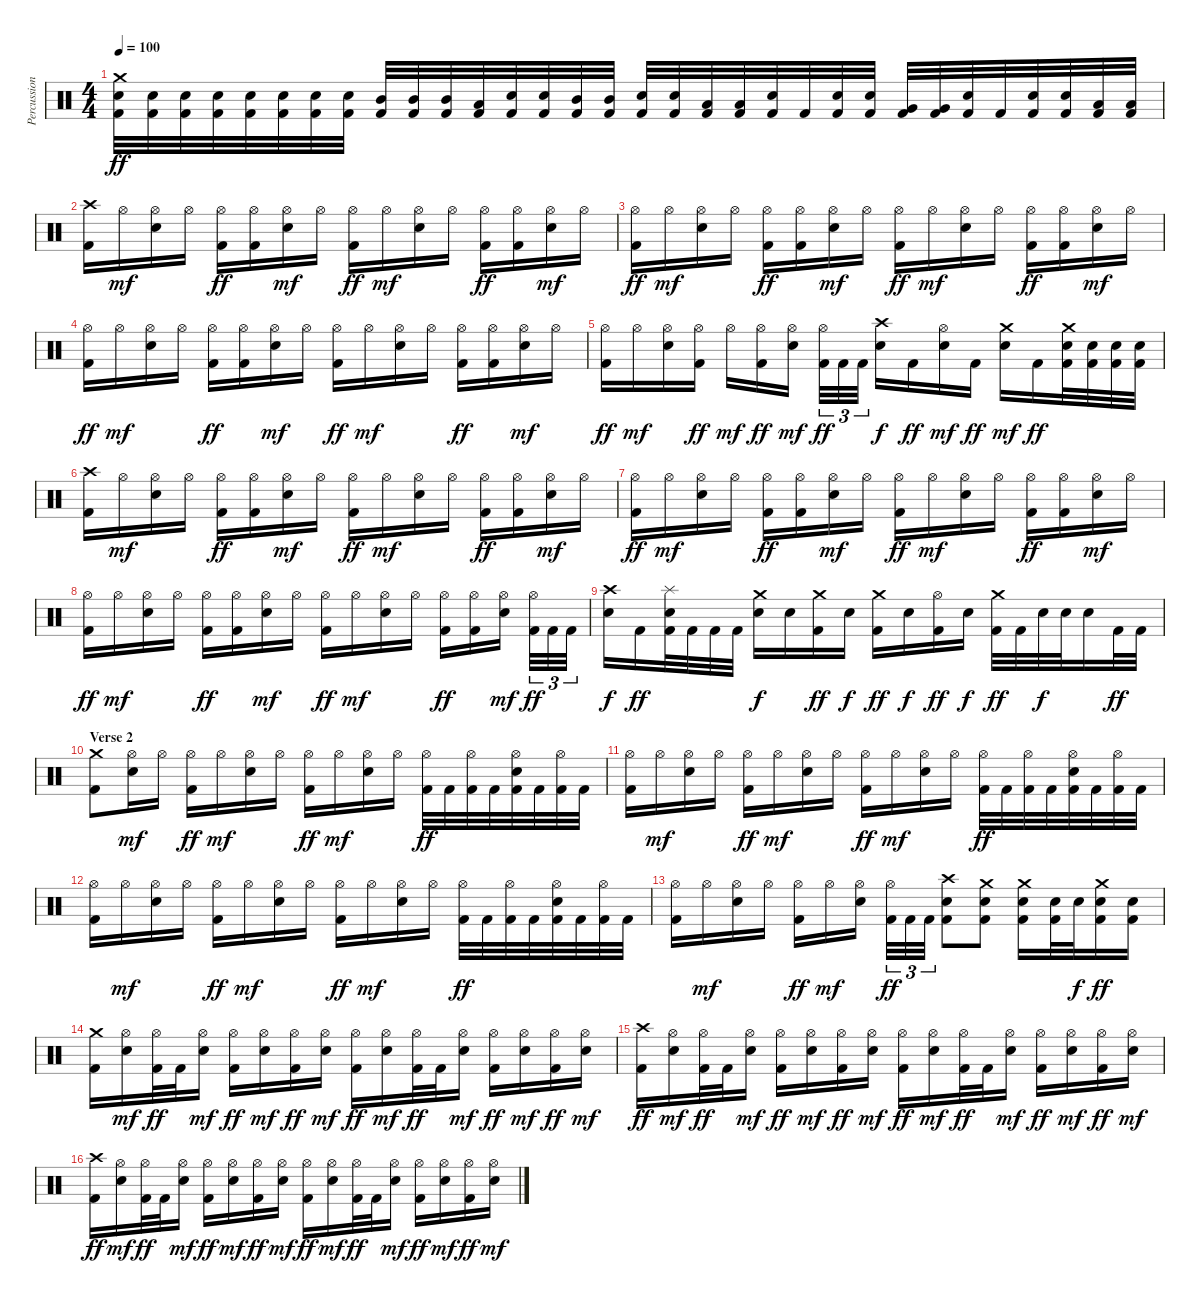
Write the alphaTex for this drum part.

\track ("Percussion" "Percussion") {instrument percussion}
\staff {score}
\articulation defaults
\ts (4 4)
\tempo 100
\clef neutral
\ks c
("Crash medium (hit)" "Snare (hit) 2" "Kick (hit) 2").32{dy ff} ("Snare (hit) 2" "Kick (hit) 2").32 ("Snare (hit) 2" "Kick (hit) 2").32 ("Snare (hit) 2" "Kick (hit) 2").32 ("Snare (hit) 2" "Kick (hit) 2").32 ("Snare (hit) 2" "Kick (hit) 2").32 ("Snare (hit) 2" "Kick (hit) 2").32 ("Snare (hit) 2" "Kick (hit) 2").32 ("Mid Tom (hit)" "Kick (hit) 2").32 ("Mid Tom (hit)" "Kick (hit) 2").32 ("Mid Tom (hit)" "Kick (hit) 2").32 ("Low Tom (hit)" "Kick (hit) 2").32 ("Snare (hit) 2" "Kick (hit) 2").32 ("Snare (hit) 2" "Kick (hit) 2").32 ("Mid Tom (hit)" "Kick (hit) 2").32 ("Mid Tom (hit)" "Kick (hit) 2").32 ("Snare (hit) 2" "Kick (hit) 2").32 ("Snare (hit) 2" "Kick (hit) 2").32 ("Low Tom (hit)" "Kick (hit) 2").32 ("Low Tom (hit)" "Kick (hit) 2").32 ("Snare (hit) 2" "Kick (hit) 2").32 "Kick (hit) 2".32 ("Snare (hit) 2" "Kick (hit) 2").32 ("Snare (hit) 2" "Kick (hit) 2").32 ("Very Low Tom (hit)" "Kick (hit) 2").32 ("Very Low Tom (hit)" "Kick (hit) 2").32 ("Snare (hit) 2" "Kick (hit) 2").32 "Kick (hit) 2".32 ("Snare (hit) 2" "Kick (hit) 2").32 ("Snare (hit) 2" "Kick (hit) 2").32 ("Low Floor Tom (hit)" "Kick (hit) 2").32 ("Low Floor Tom (hit)" "Kick (hit) 2").32 |
\section ("" "")
("Crash high (hit)" "Kick (hit) 2").16 "Hi-Hat (open)".16{dy mf} ("Hi-Hat (open)" "Snare (hit) 2").16 "Hi-Hat (open)".16 ("Hi-Hat (open)" "Kick (hit) 2").16{dy ff} ("Hi-Hat (open)" "Kick (hit) 2").16 ("Hi-Hat (open)" "Snare (hit) 2").16{dy mf} "Hi-Hat (open)".16 ("Hi-Hat (open)" "Kick (hit) 2").16{dy ff} "Hi-Hat (open)".16{dy mf} ("Hi-Hat (open)" "Snare (hit) 2").16 "Hi-Hat (open)".16 ("Hi-Hat (open)" "Kick (hit) 2").16{dy ff} ("Hi-Hat (open)" "Kick (hit) 2").16 ("Hi-Hat (open)" "Snare (hit) 2").16{dy mf} "Hi-Hat (open)".16 |
("Hi-Hat (open)" "Kick (hit) 2").16{dy ff} "Hi-Hat (open)".16{dy mf} ("Hi-Hat (open)" "Snare (hit) 2").16 "Hi-Hat (open)".16 ("Hi-Hat (open)" "Kick (hit) 2").16{dy ff} ("Hi-Hat (open)" "Kick (hit) 2").16 ("Hi-Hat (open)" "Snare (hit) 2").16{dy mf} "Hi-Hat (open)".16 ("Hi-Hat (open)" "Kick (hit) 2").16{dy ff} "Hi-Hat (open)".16{dy mf} ("Hi-Hat (open)" "Snare (hit) 2").16 "Hi-Hat (open)".16 ("Hi-Hat (open)" "Kick (hit) 2").16{dy ff} ("Hi-Hat (open)" "Kick (hit) 2").16 ("Hi-Hat (open)" "Snare (hit) 2").16{dy mf} "Hi-Hat (open)".16 |
("Hi-Hat (open)" "Kick (hit) 2").16{dy ff} "Hi-Hat (open)".16{dy mf} ("Hi-Hat (open)" "Snare (hit) 2").16 "Hi-Hat (open)".16 ("Hi-Hat (open)" "Kick (hit) 2").16{dy ff} ("Hi-Hat (open)" "Kick (hit) 2").16 ("Hi-Hat (open)" "Snare (hit) 2").16{dy mf} "Hi-Hat (open)".16 ("Hi-Hat (open)" "Kick (hit) 2").16{dy ff} "Hi-Hat (open)".16{dy mf} ("Hi-Hat (open)" "Snare (hit) 2").16 "Hi-Hat (open)".16 ("Hi-Hat (open)" "Kick (hit) 2").16{dy ff} ("Hi-Hat (open)" "Kick (hit) 2").16 ("Hi-Hat (open)" "Snare (hit) 2").16{dy mf} "Hi-Hat (open)".16 |
("Hi-Hat (open)" "Kick (hit) 2").16{dy ff} "Hi-Hat (open)".16{dy mf} ("Hi-Hat (open)" "Snare (hit) 2").16 ("Hi-Hat (open)" "Kick (hit) 2").16{dy ff} "Hi-Hat (open)".16{dy mf} ("Hi-Hat (open)" "Kick (hit) 2").16{dy ff} ("Hi-Hat (open)" "Snare (hit) 2").16{dy mf} ("Hi-Hat (open)" "Kick (hit) 2").32{tu (3 2) dy ff} "Kick (hit) 2".32{tu (3 2)} "Kick (hit) 2".32{tu (3 2)} ("Crash high (hit)" "Snare (hit) 2").16{dy f} "Kick (hit) 2".16{dy ff} ("Hi-Hat (open)" "Snare (hit) 2").16{dy mf} "Kick (hit) 2".16{dy ff} ("Crash medium (hit)" "Snare (hit) 2").16{dy mf} "Kick (hit) 2".16{dy ff} ("Crash medium (hit)" "Snare (hit) 2" "Kick (hit) 2").32 ("Snare (hit) 2" "Kick (hit) 2").32 ("Snare (hit) 2" "Kick (hit) 2").32 ("Snare (hit) 2" "Kick (hit) 2").32 |
("Crash high (hit)" "Kick (hit) 2").16 "Hi-Hat (open)".16{dy mf} ("Hi-Hat (open)" "Snare (hit) 2").16 "Hi-Hat (open)".16 ("Hi-Hat (open)" "Kick (hit) 2").16{dy ff} ("Hi-Hat (open)" "Kick (hit) 2").16 ("Hi-Hat (open)" "Snare (hit) 2").16{dy mf} "Hi-Hat (open)".16 ("Hi-Hat (open)" "Kick (hit) 2").16{dy ff} "Hi-Hat (open)".16{dy mf} ("Hi-Hat (open)" "Snare (hit) 2").16 "Hi-Hat (open)".16 ("Hi-Hat (open)" "Kick (hit) 2").16{dy ff} ("Hi-Hat (open)" "Kick (hit) 2").16 ("Hi-Hat (open)" "Snare (hit) 2").16{dy mf} "Hi-Hat (open)".16 |
("Hi-Hat (open)" "Kick (hit) 2").16{dy ff} "Hi-Hat (open)".16{dy mf} ("Hi-Hat (open)" "Snare (hit) 2").16 "Hi-Hat (open)".16 ("Hi-Hat (open)" "Kick (hit) 2").16{dy ff} ("Hi-Hat (open)" "Kick (hit) 2").16 ("Hi-Hat (open)" "Snare (hit) 2").16{dy mf} "Hi-Hat (open)".16 ("Hi-Hat (open)" "Kick (hit) 2").16{dy ff} "Hi-Hat (open)".16{dy mf} ("Hi-Hat (open)" "Snare (hit) 2").16 "Hi-Hat (open)".16 ("Hi-Hat (open)" "Kick (hit) 2").16{dy ff} ("Hi-Hat (open)" "Kick (hit) 2").16 ("Hi-Hat (open)" "Snare (hit) 2").16{dy mf} "Hi-Hat (open)".16 |
("Hi-Hat (open)" "Kick (hit) 2").16{dy ff} "Hi-Hat (open)".16{dy mf} ("Hi-Hat (open)" "Snare (hit) 2").16 "Hi-Hat (open)".16 ("Hi-Hat (open)" "Kick (hit) 2").16{dy ff} ("Hi-Hat (open)" "Kick (hit) 2").16 ("Hi-Hat (open)" "Snare (hit) 2").16{dy mf} "Hi-Hat (open)".16 ("Hi-Hat (open)" "Kick (hit) 2").16{dy ff} "Hi-Hat (open)".16{dy mf} ("Hi-Hat (open)" "Snare (hit) 2").16 "Hi-Hat (open)".16 ("Hi-Hat (open)" "Kick (hit) 2").16{dy ff} ("Hi-Hat (open)" "Kick (hit) 2").16 ("Hi-Hat (open)" "Snare (hit) 2").16{dy mf} ("Hi-Hat (open)" "Kick (hit) 2").32{tu (3 2) dy ff} "Kick (hit) 2".32{tu (3 2)} "Kick (hit) 2".32{tu (3 2)} |
("Crash high (hit)" "Snare (hit) 2").16{dy f} "Kick (hit) 2".16{dy ff} ("Splash (hit)" "Snare (hit) 2" "Kick (hit) 2").32 "Kick (hit) 2".32 "Kick (hit) 2".32 "Kick (hit) 2".32 ("Crash medium (hit)" "Snare (hit) 2").16{dy f} "Snare (hit) 2".16 ("Crash medium (hit)" "Kick (hit) 2").16{dy ff} "Snare (hit) 2".16{dy f} ("Crash medium (hit)" "Kick (hit) 2").16{dy ff} "Snare (hit) 2".16{dy f} ("Hi-Hat (open)" "Kick (hit) 2").16{dy ff} "Snare (hit) 2".16{dy f} ("Crash medium (hit)" "Kick (hit) 2").32{dy ff} "Kick (hit) 2".32 "Snare (hit) 2".32{dy f} "Snare (hit) 2".32 "Snare (hit) 2".16 "Kick (hit) 2".32{dy ff} "Kick (hit) 2".32 |
\section ("" "Verse 2")
("Crash medium (hit)" "Kick (hit) 2").8 ("Hi-Hat (open)" "Snare (hit) 2").16{dy mf} "Hi-Hat (open)".16 ("Hi-Hat (open)" "Kick (hit) 2").16{dy ff} "Hi-Hat (open)".16{dy mf} ("Hi-Hat (open)" "Snare (hit) 2").16 "Hi-Hat (open)".16 ("Hi-Hat (open)" "Kick (hit) 2").16{dy ff} "Hi-Hat (open)".16{dy mf} ("Hi-Hat (open)" "Snare (hit) 2").16 "Hi-Hat (open)".16 ("Hi-Hat (open)" "Kick (hit) 2").32{dy ff} "Kick (hit) 2".32 ("Hi-Hat (open)" "Kick (hit) 2").32 "Kick (hit) 2".32 ("Hi-Hat (open)" "Snare (hit) 2" "Kick (hit) 2").32 "Kick (hit) 2".32 ("Hi-Hat (open)" "Kick (hit) 2").32 "Kick (hit) 2".32 |
("Hi-Hat (open)" "Kick (hit) 2").16 "Hi-Hat (open)".16{dy mf} ("Hi-Hat (open)" "Snare (hit) 2").16 "Hi-Hat (open)".16 ("Hi-Hat (open)" "Kick (hit) 2").16{dy ff} "Hi-Hat (open)".16{dy mf} ("Hi-Hat (open)" "Snare (hit) 2").16 "Hi-Hat (open)".16 ("Hi-Hat (open)" "Kick (hit) 2").16{dy ff} "Hi-Hat (open)".16{dy mf} ("Hi-Hat (open)" "Snare (hit) 2").16 "Hi-Hat (open)".16 ("Hi-Hat (open)" "Kick (hit) 2").32{dy ff} "Kick (hit) 2".32 ("Hi-Hat (open)" "Kick (hit) 2").32 "Kick (hit) 2".32 ("Hi-Hat (open)" "Snare (hit) 2" "Kick (hit) 2").32 "Kick (hit) 2".32 ("Hi-Hat (open)" "Kick (hit) 2").32 "Kick (hit) 2".32 |
("Hi-Hat (open)" "Kick (hit) 2").16 "Hi-Hat (open)".16{dy mf} ("Hi-Hat (open)" "Snare (hit) 2").16 "Hi-Hat (open)".16 ("Hi-Hat (open)" "Kick (hit) 2").16{dy ff} "Hi-Hat (open)".16{dy mf} ("Hi-Hat (open)" "Snare (hit) 2").16 "Hi-Hat (open)".16 ("Hi-Hat (open)" "Kick (hit) 2").16{dy ff} "Hi-Hat (open)".16{dy mf} ("Hi-Hat (open)" "Snare (hit) 2").16 "Hi-Hat (open)".16 ("Hi-Hat (open)" "Kick (hit) 2").32{dy ff} "Kick (hit) 2".32 ("Hi-Hat (open)" "Kick (hit) 2").32 "Kick (hit) 2".32 ("Hi-Hat (open)" "Snare (hit) 2" "Kick (hit) 2").32 "Kick (hit) 2".32 ("Hi-Hat (open)" "Kick (hit) 2").32 "Kick (hit) 2".32 |
("Hi-Hat (open)" "Kick (hit) 2").16 "Hi-Hat (open)".16{dy mf} ("Hi-Hat (open)" "Snare (hit) 2").16 "Hi-Hat (open)".16 ("Hi-Hat (open)" "Kick (hit) 2").16{dy ff} "Hi-Hat (open)".16{dy mf} ("Hi-Hat (open)" "Snare (hit) 2").16 ("Hi-Hat (open)" "Kick (hit) 2").32{tu (3 2) dy ff} "Kick (hit) 2".32{tu (3 2)} "Kick (hit) 2".32{tu (3 2)} ("Crash high (hit)" "Snare (hit) 2" "Kick (hit) 2").8 ("Crash medium (hit)" "Snare (hit) 2" "Kick (hit) 2").8 ("Crash medium (hit)" "Snare (hit) 2" "Kick (hit) 2").16 ("Snare (hit) 2" "Kick (hit) 2").32 "Snare (hit) 2".32{dy f} ("Crash medium (hit)" "Snare (hit) 2" "Kick (hit) 2").16{dy ff} ("Snare (hit) 2" "Kick (hit) 2").16 |
("Crash medium (hit)" "Kick (hit) 2").16 ("Hi-Hat (open)" "Snare (hit) 2").16{dy mf} ("Hi-Hat (open)" "Kick (hit) 2").32{dy ff} "Kick (hit) 2".32 ("Hi-Hat (open)" "Snare (hit) 2").16{dy mf} ("Hi-Hat (open)" "Kick (hit) 2").16{dy ff} ("Hi-Hat (open)" "Snare (hit) 2").16{dy mf} ("Hi-Hat (open)" "Kick (hit) 2").16{dy ff} ("Hi-Hat (open)" "Snare (hit) 2").16{dy mf} ("Hi-Hat (open)" "Kick (hit) 2").16{dy ff} ("Hi-Hat (open)" "Snare (hit) 2").16{dy mf} ("Hi-Hat (open)" "Kick (hit) 2").32{dy ff} "Kick (hit) 2".32 ("Hi-Hat (open)" "Snare (hit) 2").16{dy mf} ("Hi-Hat (open)" "Kick (hit) 2").16{dy ff} ("Hi-Hat (open)" "Snare (hit) 2").16{dy mf} ("Hi-Hat (open)" "Kick (hit) 2").16{dy ff} ("Hi-Hat (open)" "Snare (hit) 2").16{dy mf} |
("Crash high (hit)" "Kick (hit) 2").16{dy ff} ("Hi-Hat (open)" "Snare (hit) 2").16{dy mf} ("Hi-Hat (open)" "Kick (hit) 2").32{dy ff} "Kick (hit) 2".32 ("Hi-Hat (open)" "Snare (hit) 2").16{dy mf} ("Hi-Hat (open)" "Kick (hit) 2").16{dy ff} ("Hi-Hat (open)" "Snare (hit) 2").16{dy mf} ("Hi-Hat (open)" "Kick (hit) 2").16{dy ff} ("Hi-Hat (open)" "Snare (hit) 2").16{dy mf} ("Hi-Hat (open)" "Kick (hit) 2").16{dy ff} ("Hi-Hat (open)" "Snare (hit) 2").16{dy mf} ("Hi-Hat (open)" "Kick (hit) 2").32{dy ff} "Kick (hit) 2".32 ("Hi-Hat (open)" "Snare (hit) 2").16{dy mf} ("Hi-Hat (open)" "Kick (hit) 2").16{dy ff} ("Hi-Hat (open)" "Snare (hit) 2").16{dy mf} ("Hi-Hat (open)" "Kick (hit) 2").16{dy ff} ("Hi-Hat (open)" "Snare (hit) 2").16{dy mf} |
("Crash high (hit)" "Kick (hit) 2").16{dy ff} ("Hi-Hat (open)" "Snare (hit) 2").16{dy mf} ("Hi-Hat (open)" "Kick (hit) 2").32{dy ff} "Kick (hit) 2".32 ("Hi-Hat (open)" "Snare (hit) 2").16{dy mf} ("Hi-Hat (open)" "Kick (hit) 2").16{dy ff} ("Hi-Hat (open)" "Snare (hit) 2").16{dy mf} ("Hi-Hat (open)" "Kick (hit) 2").16{dy ff} ("Hi-Hat (open)" "Snare (hit) 2").16{dy mf} ("Hi-Hat (open)" "Kick (hit) 2").16{dy ff} ("Hi-Hat (open)" "Snare (hit) 2").16{dy mf} ("Hi-Hat (open)" "Kick (hit) 2").32{dy ff} "Kick (hit) 2".32 ("Hi-Hat (open)" "Snare (hit) 2").16{dy mf} ("Hi-Hat (open)" "Kick (hit) 2").16{dy ff} ("Hi-Hat (open)" "Snare (hit) 2").16{dy mf} ("Hi-Hat (open)" "Kick (hit) 2").16{dy ff} ("Hi-Hat (open)" "Snare (hit) 2").16{dy mf}
